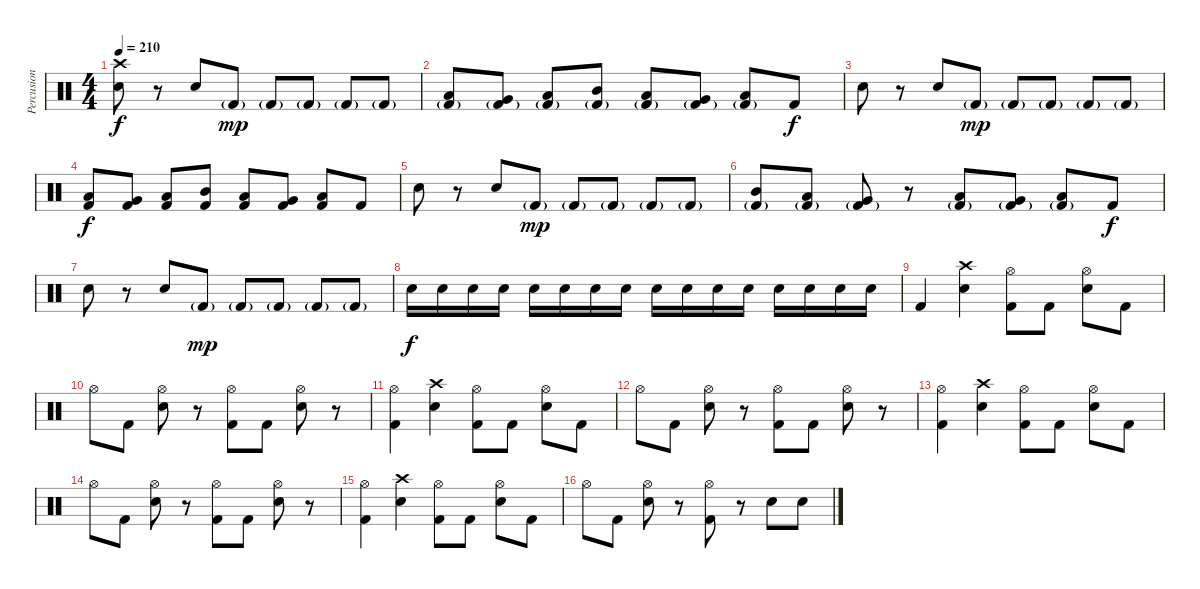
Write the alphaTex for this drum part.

\track ("Percusion" "Percusion") {instrument percussion}
\staff {score}
\articulation defaults
\ts (4 4)
\tempo 210
\clef neutral
\ks c
("Crash high (hit)" "Snare (hit) 2").8{dy f} r.8 "Snare (hit) 2".8 "Kick (hit) 2"{g}.8{dy mp} "Kick (hit) 2"{g}.8 "Kick (hit) 2"{g}.8 "Kick (hit) 2"{g}.8 "Kick (hit) 2"{g}.8 |
("Low Tom (hit)" "Kick (hit) 2"{g}).8 ("Very Low Tom (hit)" "Kick (hit) 2"{g}).8 ("Low Floor Tom (hit)" "Kick (hit) 2"{g}).8 ("Mid Tom (hit)" "Kick (hit) 2"{g}).8 ("Low Tom (hit)" "Kick (hit) 2"{g}).8 ("Very Low Tom (hit)" "Kick (hit) 2"{g}).8 ("Low Floor Tom (hit)" "Kick (hit) 2"{g}).8 "Kick (hit) 2".8{dy f} |
"Snare (hit) 2".8 r.8 "Snare (hit) 2".8 "Kick (hit) 2"{g}.8{dy mp} "Kick (hit) 2"{g}.8 "Kick (hit) 2"{g}.8 "Kick (hit) 2"{g}.8 "Kick (hit) 2"{g}.8 |
("Low Tom (hit)" "Kick (hit) 2").8{dy f} ("Very Low Tom (hit)" "Kick (hit) 2").8 ("Low Floor Tom (hit)" "Kick (hit) 2").8 ("Mid Tom (hit)" "Kick (hit) 2").8 ("Low Tom (hit)" "Kick (hit) 2").8 ("Very Low Tom (hit)" "Kick (hit) 2").8 ("Low Floor Tom (hit)" "Kick (hit) 2").8 "Kick (hit) 2".8 |
"Snare (hit) 2".8 r.8 "Snare (hit) 2".8 "Kick (hit) 2"{g}.8{dy mp} "Kick (hit) 2"{g}.8 "Kick (hit) 2"{g}.8 "Kick (hit) 2"{g}.8 "Kick (hit) 2"{g}.8 |
("Mid Tom (hit)" "Kick (hit) 2"{g}).8 ("Low Tom (hit)" "Kick (hit) 2"{g}).8 ("Very Low Tom (hit)" "Kick (hit) 2"{g}).8 r.8 ("Low Tom (hit)" "Kick (hit) 2"{g}).8 ("Very Low Tom (hit)" "Kick (hit) 2"{g}).8 ("Low Floor Tom (hit)" "Kick (hit) 2"{g}).8 "Kick (hit) 2".8{dy f} |
"Snare (hit) 2".8 r.8 "Snare (hit) 2".8 "Kick (hit) 2"{g}.8{dy mp} "Kick (hit) 2"{g}.8 "Kick (hit) 2"{g}.8 "Kick (hit) 2"{g}.8 "Kick (hit) 2"{g}.8 |
"Snare (hit) 2".16{dy f} "Snare (hit) 2".16 "Snare (hit) 2".16 "Snare (hit) 2".16 "Snare (hit) 2".16 "Snare (hit) 2".16 "Snare (hit) 2".16 "Snare (hit) 2".16 "Snare (hit) 2".16 "Snare (hit) 2".16 "Snare (hit) 2".16 "Snare (hit) 2".16 "Snare (hit) 2".16 "Snare (hit) 2".16 "Snare (hit) 2".16 "Snare (hit) 2".16 |
"Kick (hit) 2".4 ("Crash high (hit)" "Snare (hit) 2").4 ("Hi-Hat (open)" "Kick (hit) 2").8 "Kick (hit) 2".8 ("Hi-Hat (open)" "Snare (hit) 2").8 "Kick (hit) 2".8 |
"Hi-Hat (open)".8 "Kick (hit) 2".8 ("Hi-Hat (open)" "Snare (hit) 2").8 r.8 ("Hi-Hat (open)" "Kick (hit) 2").8 "Kick (hit) 2".8 ("Hi-Hat (open)" "Snare (hit) 2").8 r.8 |
("Hi-Hat (open)" "Kick (hit) 2").4 ("Crash high (hit)" "Snare (hit) 2").4 ("Hi-Hat (open)" "Kick (hit) 2").8 "Kick (hit) 2".8 ("Hi-Hat (open)" "Snare (hit) 2").8 "Kick (hit) 2".8 |
"Hi-Hat (open)".8 "Kick (hit) 2".8 ("Hi-Hat (open)" "Snare (hit) 2").8 r.8 ("Hi-Hat (open)" "Kick (hit) 2").8 "Kick (hit) 2".8 ("Hi-Hat (open)" "Snare (hit) 2").8 r.8 |
("Hi-Hat (open)" "Kick (hit) 2").4 ("Crash high (hit)" "Snare (hit) 2").4 ("Hi-Hat (open)" "Kick (hit) 2").8 "Kick (hit) 2".8 ("Hi-Hat (open)" "Snare (hit) 2").8 "Kick (hit) 2".8 |
"Hi-Hat (open)".8 "Kick (hit) 2".8 ("Hi-Hat (open)" "Snare (hit) 2").8 r.8 ("Hi-Hat (open)" "Kick (hit) 2").8 "Kick (hit) 2".8 ("Hi-Hat (open)" "Snare (hit) 2").8 r.8 |
("Hi-Hat (open)" "Kick (hit) 2").4 ("Crash high (hit)" "Snare (hit) 2").4 ("Hi-Hat (open)" "Kick (hit) 2").8 "Kick (hit) 2".8 ("Hi-Hat (open)" "Snare (hit) 2").8 "Kick (hit) 2".8 |
"Hi-Hat (open)".8 "Kick (hit) 2".8 ("Hi-Hat (open)" "Snare (hit) 2").8 r.8 ("Hi-Hat (open)" "Kick (hit) 2").8 r.8 "Snare (hit) 2".8 "Snare (hit) 2".8
